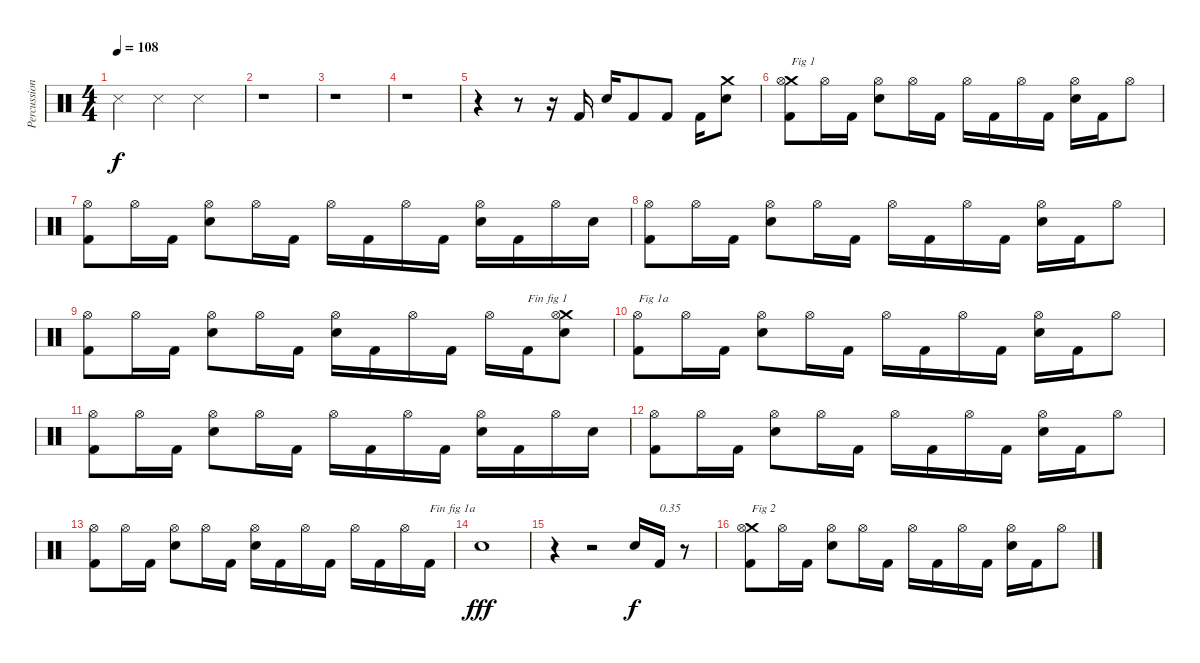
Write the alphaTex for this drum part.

\track ("Percussions" "Percussion") {instrument percussion}
\staff {score}
\articulation defaults
\ts (4 4)
\tempo 108
\clef neutral
\ks c "Metronome (hit)".4{dy f} "Metronome (hit)".4 "Metronome (hit)".2
|
r.1 |
r.1 |
r.1 |
r.4 r.8 r.16 "Kick (hit) 2".16 "Electric Snare (hit)".16 "Kick (hit) 2".8 "Kick (hit) 2".8 "Kick (hit) 2".16 ("Electric Snare (hit)" "Crash medium (hit)").8 |
("Kick (hit) 2" "Crash medium (hit)" "Hi-Hat (open)").8{txt "Fig 1"} "Hi-Hat (open)".16 "Kick (hit) 2".16 ("Electric Snare (hit)" "Hi-Hat (open)").8 "Hi-Hat (open)".16 "Kick (hit) 2".16 "Hi-Hat (open)".16 "Kick (hit) 2".16 "Hi-Hat (open)".16 "Kick (hit) 2".16 ("Electric Snare (hit)" "Hi-Hat (open)").16 "Kick (hit) 2".16 "Hi-Hat (open)".8 |
("Kick (hit) 2" "Hi-Hat (open)").8 "Hi-Hat (open)".16 "Kick (hit) 2".16 ("Electric Snare (hit)" "Hi-Hat (open)").8 "Hi-Hat (open)".16 "Kick (hit) 2".16 "Hi-Hat (open)".16 "Kick (hit) 2".16 "Hi-Hat (open)".16 "Kick (hit) 2".16 ("Electric Snare (hit)" "Hi-Hat (open)").16 "Kick (hit) 2".16 "Hi-Hat (open)".16 "Electric Snare (hit)".16 |
("Kick (hit) 2" "Hi-Hat (open)").8 "Hi-Hat (open)".16 "Kick (hit) 2".16 ("Electric Snare (hit)" "Hi-Hat (open)").8 "Hi-Hat (open)".16 "Kick (hit) 2".16 "Hi-Hat (open)".16 "Kick (hit) 2".16 "Hi-Hat (open)".16 "Kick (hit) 2".16 ("Electric Snare (hit)" "Hi-Hat (open)").16 "Kick (hit) 2".16 "Hi-Hat (open)".8 |
("Kick (hit) 2" "Hi-Hat (open)").8 "Hi-Hat (open)".16 "Kick (hit) 2".16 ("Electric Snare (hit)" "Hi-Hat (open)").8 "Hi-Hat (open)".16 "Kick (hit) 2".16 ("Electric Snare (hit)" "Hi-Hat (open)").16 "Kick (hit) 2".16 "Hi-Hat (open)".16 "Kick (hit) 2".16 "Hi-Hat (open)".16 "Kick (hit) 2".16{txt "Fin fig 1"} ("Electric Snare (hit)" "Crash medium (hit)" "Hi-Hat (open)").8 |
("Kick (hit) 2" "Hi-Hat (open)").8{txt "Fig 1a"} "Hi-Hat (open)".16 "Kick (hit) 2".16 ("Electric Snare (hit)" "Hi-Hat (open)").8 "Hi-Hat (open)".16 "Kick (hit) 2".16 "Hi-Hat (open)".16 "Kick (hit) 2".16 "Hi-Hat (open)".16 "Kick (hit) 2".16 ("Electric Snare (hit)" "Hi-Hat (open)").16 "Kick (hit) 2".16 "Hi-Hat (open)".8 |
("Kick (hit) 2" "Hi-Hat (open)").8 "Hi-Hat (open)".16 "Kick (hit) 2".16 ("Electric Snare (hit)" "Hi-Hat (open)").8 "Hi-Hat (open)".16 "Kick (hit) 2".16 "Hi-Hat (open)".16 "Kick (hit) 2".16 "Hi-Hat (open)".16 "Kick (hit) 2".16 ("Electric Snare (hit)" "Hi-Hat (open)").16 "Kick (hit) 2".16 "Hi-Hat (open)".16 "Electric Snare (hit)".16 |
("Kick (hit) 2" "Hi-Hat (open)").8 "Hi-Hat (open)".16 "Kick (hit) 2".16 ("Electric Snare (hit)" "Hi-Hat (open)").8 "Hi-Hat (open)".16 "Kick (hit) 2".16 "Hi-Hat (open)".16 "Kick (hit) 2".16 "Hi-Hat (open)".16 "Kick (hit) 2".16 ("Electric Snare (hit)" "Hi-Hat (open)").16 "Kick (hit) 2".16 "Hi-Hat (open)".8 |
("Kick (hit) 2" "Hi-Hat (open)").8 "Hi-Hat (open)".16 "Kick (hit) 2".16 ("Electric Snare (hit)" "Hi-Hat (open)").8 "Hi-Hat (open)".16 "Kick (hit) 2".16 ("Electric Snare (hit)" "Hi-Hat (open)").16 "Kick (hit) 2".16 "Hi-Hat (open)".16 "Kick (hit) 2".16 "Hi-Hat (open)".16 "Kick (hit) 2".16 "Hi-Hat (open)".16 "Kick (hit) 2".16{txt "Fin fig 1a"} |
"Electric Snare (hit)".1{dy fff} |
r.4 r.2 "Electric Snare (hit)".16{dy f} "Kick (hit) 2".16{txt "0.35"} r.8 |
("Kick (hit) 2" "Crash medium (hit)" "Hi-Hat (open)").8{txt "Fig 2"} "Hi-Hat (open)".16 "Kick (hit) 2".16 ("Electric Snare (hit)" "Hi-Hat (open)").8 "Hi-Hat (open)".16 "Kick (hit) 2".16 "Hi-Hat (open)".16 "Kick (hit) 2".16 "Hi-Hat (open)".16 "Kick (hit) 2".16 ("Electric Snare (hit)" "Hi-Hat (open)").16 "Kick (hit) 2".16 "Hi-Hat (open)".8
